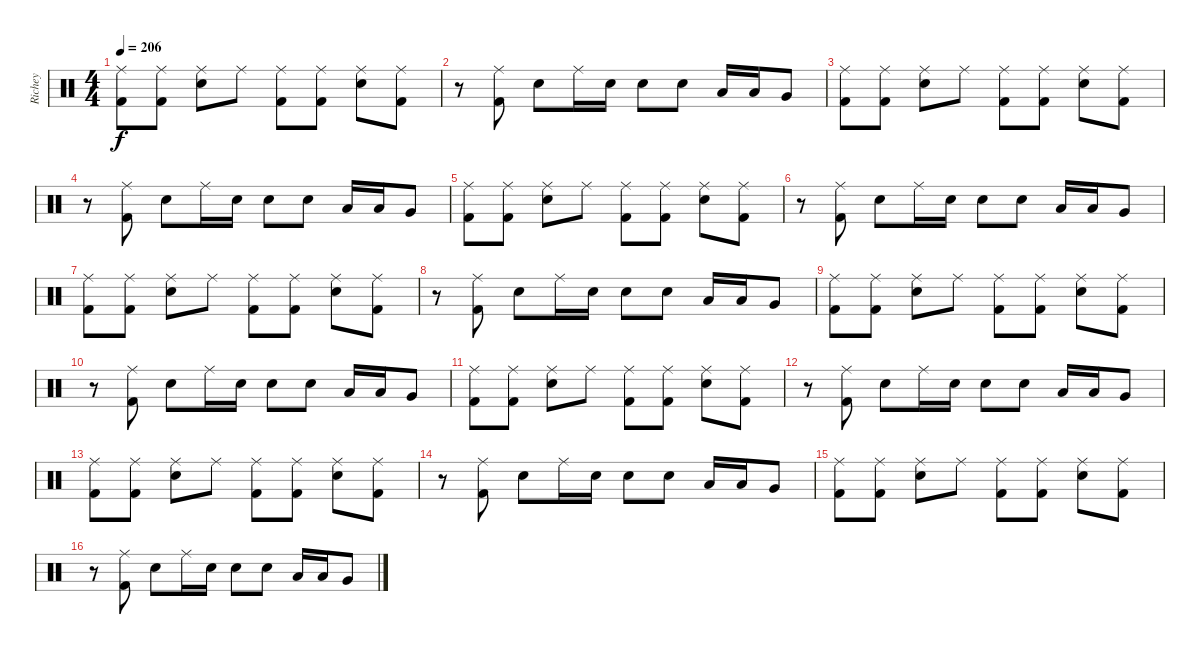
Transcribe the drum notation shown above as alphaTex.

\track ("Richey" "Richey") {instrument percussion}
\staff {score}
\articulation defaults
\ts (4 4)
\tempo 206
\clef neutral
\ks c
("Ride (middle)" "Kick (hit) 2").8{dy f} ("Ride (middle)" "Kick (hit) 2").8 ("Ride (middle)" "Snare (hit) 2").8 "Ride (middle)".8 ("Ride (middle)" "Kick (hit) 2").8 ("Ride (middle)" "Kick (hit) 2").8 ("Ride (middle)" "Snare (hit) 2").8 ("Ride (middle)" "Kick (hit) 2").8 |
r.8 ("Ride (middle)" "Kick (hit) 2").8 "Snare (hit) 2".8 "Ride (middle)".16 "Snare (hit) 2".16 "Snare (hit) 2".8 "Snare (hit) 2".8 "Low Tom (hit)".16 "Low Tom (hit)".16 "Very Low Tom (hit)".8 |
("Ride (middle)" "Kick (hit) 2").8 ("Ride (middle)" "Kick (hit) 2").8 ("Ride (middle)" "Snare (hit) 2").8 "Ride (middle)".8 ("Ride (middle)" "Kick (hit) 2").8 ("Ride (middle)" "Kick (hit) 2").8 ("Ride (middle)" "Snare (hit) 2").8 ("Ride (middle)" "Kick (hit) 2").8 |
r.8 ("Ride (middle)" "Kick (hit) 2").8 "Snare (hit) 2".8 "Ride (middle)".16 "Snare (hit) 2".16 "Snare (hit) 2".8 "Snare (hit) 2".8 "Low Tom (hit)".16 "Low Tom (hit)".16 "Very Low Tom (hit)".8 |
("Ride (middle)" "Kick (hit) 2").8 ("Ride (middle)" "Kick (hit) 2").8 ("Ride (middle)" "Snare (hit) 2").8 "Ride (middle)".8 ("Ride (middle)" "Kick (hit) 2").8 ("Ride (middle)" "Kick (hit) 2").8 ("Ride (middle)" "Snare (hit) 2").8 ("Ride (middle)" "Kick (hit) 2").8 |
r.8 ("Ride (middle)" "Kick (hit) 2").8 "Snare (hit) 2".8 "Ride (middle)".16 "Snare (hit) 2".16 "Snare (hit) 2".8 "Snare (hit) 2".8 "Low Tom (hit)".16 "Low Tom (hit)".16 "Very Low Tom (hit)".8 |
("Ride (middle)" "Kick (hit) 2").8 ("Ride (middle)" "Kick (hit) 2").8 ("Ride (middle)" "Snare (hit) 2").8 "Ride (middle)".8 ("Ride (middle)" "Kick (hit) 2").8 ("Ride (middle)" "Kick (hit) 2").8 ("Ride (middle)" "Snare (hit) 2").8 ("Ride (middle)" "Kick (hit) 2").8 |
r.8 ("Ride (middle)" "Kick (hit) 2").8 "Snare (hit) 2".8 "Ride (middle)".16 "Snare (hit) 2".16 "Snare (hit) 2".8 "Snare (hit) 2".8 "Low Tom (hit)".16 "Low Tom (hit)".16 "Very Low Tom (hit)".8 |
("Ride (middle)" "Kick (hit) 2").8 ("Ride (middle)" "Kick (hit) 2").8 ("Ride (middle)" "Snare (hit) 2").8 "Ride (middle)".8 ("Ride (middle)" "Kick (hit) 2").8 ("Ride (middle)" "Kick (hit) 2").8 ("Ride (middle)" "Snare (hit) 2").8 ("Ride (middle)" "Kick (hit) 2").8 |
r.8 ("Ride (middle)" "Kick (hit) 2").8 "Snare (hit) 2".8 "Ride (middle)".16 "Snare (hit) 2".16 "Snare (hit) 2".8 "Snare (hit) 2".8 "Low Tom (hit)".16 "Low Tom (hit)".16 "Very Low Tom (hit)".8 |
("Ride (middle)" "Kick (hit) 2").8 ("Ride (middle)" "Kick (hit) 2").8 ("Ride (middle)" "Snare (hit) 2").8 "Ride (middle)".8 ("Ride (middle)" "Kick (hit) 2").8 ("Ride (middle)" "Kick (hit) 2").8 ("Ride (middle)" "Snare (hit) 2").8 ("Ride (middle)" "Kick (hit) 2").8 |
r.8 ("Ride (middle)" "Kick (hit) 2").8 "Snare (hit) 2".8 "Ride (middle)".16 "Snare (hit) 2".16 "Snare (hit) 2".8 "Snare (hit) 2".8 "Low Tom (hit)".16 "Low Tom (hit)".16 "Very Low Tom (hit)".8 |
("Ride (middle)" "Kick (hit) 2").8 ("Ride (middle)" "Kick (hit) 2").8 ("Ride (middle)" "Snare (hit) 2").8 "Ride (middle)".8 ("Ride (middle)" "Kick (hit) 2").8 ("Ride (middle)" "Kick (hit) 2").8 ("Ride (middle)" "Snare (hit) 2").8 ("Ride (middle)" "Kick (hit) 2").8 |
r.8 ("Ride (middle)" "Kick (hit) 2").8 "Snare (hit) 2".8 "Ride (middle)".16 "Snare (hit) 2".16 "Snare (hit) 2".8 "Snare (hit) 2".8 "Low Tom (hit)".16 "Low Tom (hit)".16 "Very Low Tom (hit)".8 |
("Ride (middle)" "Kick (hit) 2").8 ("Ride (middle)" "Kick (hit) 2").8 ("Ride (middle)" "Snare (hit) 2").8 "Ride (middle)".8 ("Ride (middle)" "Kick (hit) 2").8 ("Ride (middle)" "Kick (hit) 2").8 ("Ride (middle)" "Snare (hit) 2").8 ("Ride (middle)" "Kick (hit) 2").8 |
r.8 ("Ride (middle)" "Kick (hit) 2").8 "Snare (hit) 2".8 "Ride (middle)".16 "Snare (hit) 2".16 "Snare (hit) 2".8 "Snare (hit) 2".8 "Low Tom (hit)".16 "Low Tom (hit)".16 "Very Low Tom (hit)".8
